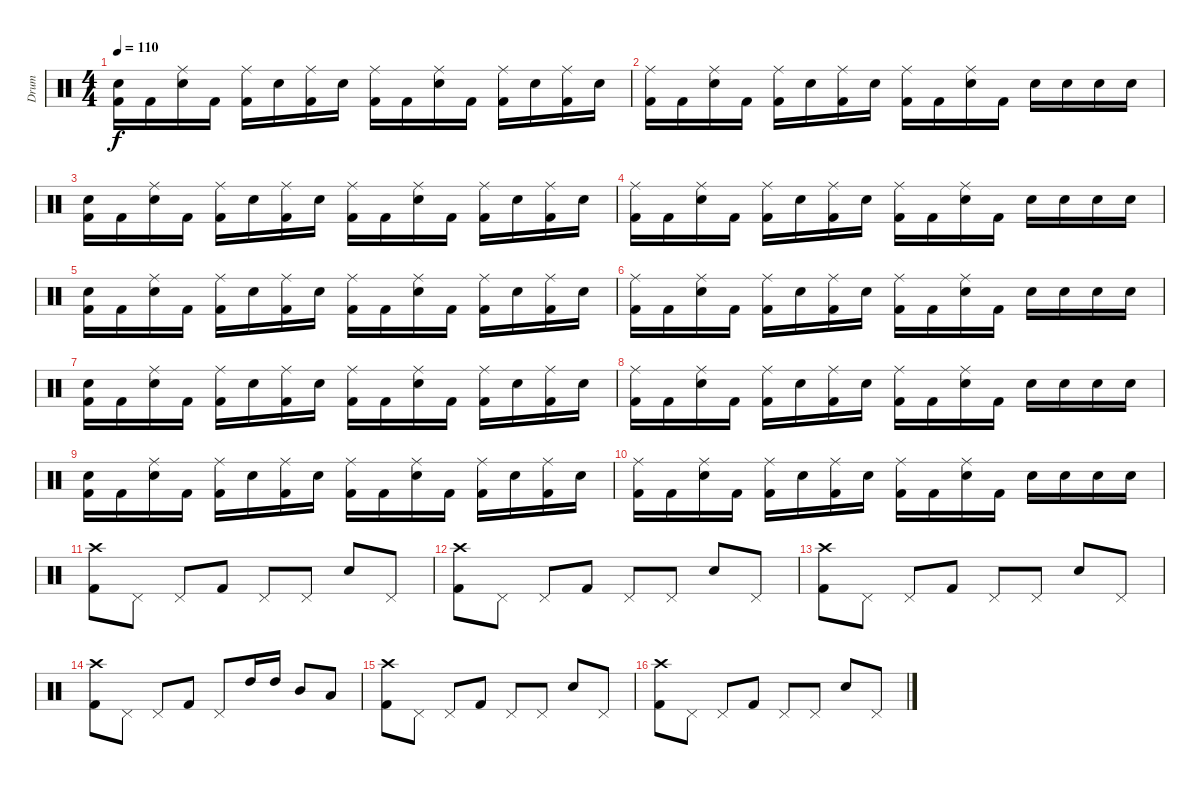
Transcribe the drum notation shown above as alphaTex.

\track ("Drum" "Drum") {instrument percussion}
\staff {score}
\articulation defaults
\ts (4 4)
\tempo 110
\clef neutral
\ks c
("Hand Clap (hit)" "Kick (hit) 2").16{dy f} "Kick (hit) 2".16 ("Ride (middle)" "Electric Snare (hit)").16 "Kick (hit) 2".16 ("Ride (middle)" "Kick (hit) 2").16 "Electric Snare (hit)".16 ("Ride (middle)" "Kick (hit) 2").16 "Electric Snare (hit)".16 ("Ride (middle)" "Kick (hit) 2").16 "Kick (hit) 2".16 ("Ride (middle)" "Electric Snare (hit)").16 "Kick (hit) 2".16 ("Ride (middle)" "Kick (hit) 2").16 "Electric Snare (hit)".16 ("Ride (middle)" "Kick (hit) 2").16 "Electric Snare (hit)".16 |
("Ride (middle)" "Kick (hit) 2").16 "Kick (hit) 2".16 ("Ride (middle)" "Electric Snare (hit)").16 "Kick (hit) 2".16 ("Ride (middle)" "Kick (hit) 2").16 "Electric Snare (hit)".16 ("Ride (middle)" "Kick (hit) 2").16 "Electric Snare (hit)".16 ("Ride (middle)" "Kick (hit) 2").16 "Kick (hit) 2".16 ("Ride (middle)" "Electric Snare (hit)").16 "Kick (hit) 2".16 "Electric Snare (hit)".16 "Electric Snare (hit)".16 "Electric Snare (hit)".16 "Electric Snare (hit)".16 |
("Hand Clap (hit)" "Kick (hit) 2").16 "Kick (hit) 2".16 ("Ride (middle)" "Electric Snare (hit)").16 "Kick (hit) 2".16 ("Ride (middle)" "Kick (hit) 2").16 "Electric Snare (hit)".16 ("Ride (middle)" "Kick (hit) 2").16 "Electric Snare (hit)".16 ("Ride (middle)" "Kick (hit) 2").16 "Kick (hit) 2".16 ("Ride (middle)" "Electric Snare (hit)").16 "Kick (hit) 2".16 ("Ride (middle)" "Kick (hit) 2").16 "Electric Snare (hit)".16 ("Ride (middle)" "Kick (hit) 2").16 "Electric Snare (hit)".16 |
("Ride (middle)" "Kick (hit) 2").16 "Kick (hit) 2".16 ("Ride (middle)" "Electric Snare (hit)").16 "Kick (hit) 2".16 ("Ride (middle)" "Kick (hit) 2").16 "Electric Snare (hit)".16 ("Ride (middle)" "Kick (hit) 2").16 "Electric Snare (hit)".16 ("Ride (middle)" "Kick (hit) 2").16 "Kick (hit) 2".16 ("Ride (middle)" "Electric Snare (hit)").16 "Kick (hit) 2".16 "Electric Snare (hit)".16 "Electric Snare (hit)".16 "Electric Snare (hit)".16 "Electric Snare (hit)".16 |
("Hand Clap (hit)" "Kick (hit) 2").16 "Kick (hit) 2".16 ("Ride (middle)" "Electric Snare (hit)").16 "Kick (hit) 2".16 ("Ride (middle)" "Kick (hit) 2").16 "Electric Snare (hit)".16 ("Ride (middle)" "Kick (hit) 2").16 "Electric Snare (hit)".16 ("Ride (middle)" "Kick (hit) 2").16 "Kick (hit) 2".16 ("Ride (middle)" "Electric Snare (hit)").16 "Kick (hit) 2".16 ("Ride (middle)" "Kick (hit) 2").16 "Electric Snare (hit)".16 ("Ride (middle)" "Kick (hit) 2").16 "Electric Snare (hit)".16 |
("Ride (middle)" "Kick (hit) 2").16 "Kick (hit) 2".16 ("Ride (middle)" "Electric Snare (hit)").16 "Kick (hit) 2".16 ("Ride (middle)" "Kick (hit) 2").16 "Electric Snare (hit)".16 ("Ride (middle)" "Kick (hit) 2").16 "Electric Snare (hit)".16 ("Ride (middle)" "Kick (hit) 2").16 "Kick (hit) 2".16 ("Ride (middle)" "Electric Snare (hit)").16 "Kick (hit) 2".16 "Electric Snare (hit)".16 "Electric Snare (hit)".16 "Electric Snare (hit)".16 "Electric Snare (hit)".16 |
("Hand Clap (hit)" "Kick (hit) 2").16 "Kick (hit) 2".16 ("Ride (middle)" "Electric Snare (hit)").16 "Kick (hit) 2".16 ("Ride (middle)" "Kick (hit) 2").16 "Electric Snare (hit)".16 ("Ride (middle)" "Kick (hit) 2").16 "Electric Snare (hit)".16 ("Ride (middle)" "Kick (hit) 2").16 "Kick (hit) 2".16 ("Ride (middle)" "Electric Snare (hit)").16 "Kick (hit) 2".16 ("Ride (middle)" "Kick (hit) 2").16 "Electric Snare (hit)".16 ("Ride (middle)" "Kick (hit) 2").16 "Electric Snare (hit)".16 |
("Ride (middle)" "Kick (hit) 2").16 "Kick (hit) 2".16 ("Ride (middle)" "Electric Snare (hit)").16 "Kick (hit) 2".16 ("Ride (middle)" "Kick (hit) 2").16 "Electric Snare (hit)".16 ("Ride (middle)" "Kick (hit) 2").16 "Electric Snare (hit)".16 ("Ride (middle)" "Kick (hit) 2").16 "Kick (hit) 2".16 ("Ride (middle)" "Electric Snare (hit)").16 "Kick (hit) 2".16 "Electric Snare (hit)".16 "Electric Snare (hit)".16 "Electric Snare (hit)".16 "Electric Snare (hit)".16 |
("Hand Clap (hit)" "Kick (hit) 2").16 "Kick (hit) 2".16 ("Ride (middle)" "Electric Snare (hit)").16 "Kick (hit) 2".16 ("Ride (middle)" "Kick (hit) 2").16 "Electric Snare (hit)".16 ("Ride (middle)" "Kick (hit) 2").16 "Electric Snare (hit)".16 ("Ride (middle)" "Kick (hit) 2").16 "Kick (hit) 2".16 ("Ride (middle)" "Electric Snare (hit)").16 "Kick (hit) 2".16 ("Ride (middle)" "Kick (hit) 2").16 "Electric Snare (hit)".16 ("Ride (middle)" "Kick (hit) 2").16 "Electric Snare (hit)".16 |
("Ride (middle)" "Kick (hit) 2").16 "Kick (hit) 2".16 ("Ride (middle)" "Electric Snare (hit)").16 "Kick (hit) 2".16 ("Ride (middle)" "Kick (hit) 2").16 "Electric Snare (hit)".16 ("Ride (middle)" "Kick (hit) 2").16 "Electric Snare (hit)".16 ("Ride (middle)" "Kick (hit) 2").16 "Kick (hit) 2".16 ("Ride (middle)" "Electric Snare (hit)").16 "Kick (hit) 2".16 "Electric Snare (hit)".16 "Electric Snare (hit)".16 "Electric Snare (hit)".16 "Electric Snare (hit)".16 |
("Crash high (hit)" "Kick (hit) 2").8 "Pedal Hi-Hat (hit)".8 "Pedal Hi-Hat (hit)".8 "Kick (hit) 2".8 "Pedal Hi-Hat (hit)".8 "Pedal Hi-Hat (hit)".8 "Electric Snare (hit)".8 "Pedal Hi-Hat (hit)".8 |
("Crash high (hit)" "Kick (hit) 2").8 "Pedal Hi-Hat (hit)".8 "Pedal Hi-Hat (hit)".8 "Kick (hit) 2".8 "Pedal Hi-Hat (hit)".8 "Pedal Hi-Hat (hit)".8 "Electric Snare (hit)".8 "Pedal Hi-Hat (hit)".8 |
("Crash high (hit)" "Kick (hit) 2").8 "Pedal Hi-Hat (hit)".8 "Pedal Hi-Hat (hit)".8 "Kick (hit) 2".8 "Pedal Hi-Hat (hit)".8 "Pedal Hi-Hat (hit)".8 "Electric Snare (hit)".8 "Pedal Hi-Hat (hit)".8 |
("Crash high (hit)" "Kick (hit) 2").8 "Pedal Hi-Hat (hit)".8 "Pedal Hi-Hat (hit)".8 "Kick (hit) 2".8 "Pedal Hi-Hat (hit)".8 "High Tom (hit)".16 "High Tom (hit)".16 "Mid Tom (hit)".8 "Low Tom (hit)".8 |
("Crash high (hit)" "Kick (hit) 2").8 "Pedal Hi-Hat (hit)".8 "Pedal Hi-Hat (hit)".8 "Kick (hit) 2".8 "Pedal Hi-Hat (hit)".8 "Pedal Hi-Hat (hit)".8 "Electric Snare (hit)".8 "Pedal Hi-Hat (hit)".8 |
("Crash high (hit)" "Kick (hit) 2").8 "Pedal Hi-Hat (hit)".8 "Pedal Hi-Hat (hit)".8 "Kick (hit) 2".8 "Pedal Hi-Hat (hit)".8 "Pedal Hi-Hat (hit)".8 "Electric Snare (hit)".8 "Pedal Hi-Hat (hit)".8
